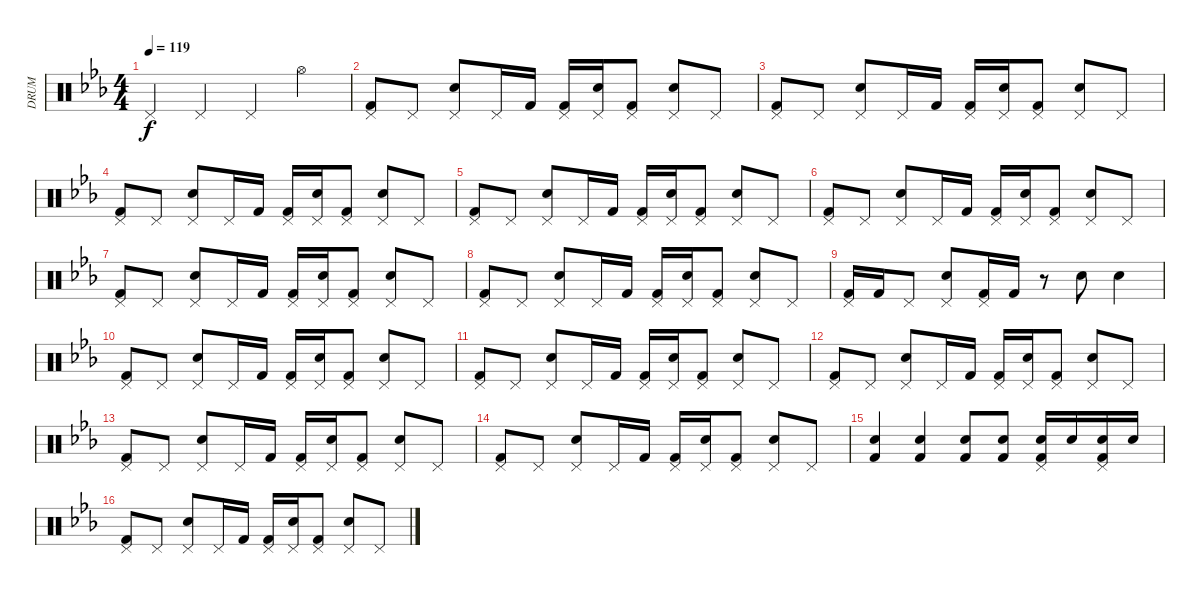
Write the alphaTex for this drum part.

\track ("DRUM" "DRUM") {instrument percussion}
\staff {score}
\articulation defaults
\ts (4 4)
\tempo 119
\clef neutral
\ks eb "Pedal Hi-Hat (hit)".4{dy f} "Pedal Hi-Hat (hit)".4 "Pedal Hi-Hat (hit)".4 "Hi-Hat (open)".4
|
("Pedal Hi-Hat (hit)" "Kick (hit) 2").8 "Pedal Hi-Hat (hit)".8 ("Pedal Hi-Hat (hit)" "Electric Snare (hit)").8 "Pedal Hi-Hat (hit)".16 "Kick (hit) 2".16 ("Pedal Hi-Hat (hit)" "Kick (hit) 2").16 ("Pedal Hi-Hat (hit)" "Electric Snare (hit)").16 ("Pedal Hi-Hat (hit)" "Kick (hit) 2").8 ("Pedal Hi-Hat (hit)" "Electric Snare (hit)").8 "Pedal Hi-Hat (hit)".8 |
("Pedal Hi-Hat (hit)" "Kick (hit) 2").8 "Pedal Hi-Hat (hit)".8 ("Pedal Hi-Hat (hit)" "Electric Snare (hit)").8 "Pedal Hi-Hat (hit)".16 "Kick (hit) 2".16 ("Pedal Hi-Hat (hit)" "Kick (hit) 2").16 ("Pedal Hi-Hat (hit)" "Electric Snare (hit)").16 ("Pedal Hi-Hat (hit)" "Kick (hit) 2").8 ("Pedal Hi-Hat (hit)" "Electric Snare (hit)").8 "Pedal Hi-Hat (hit)".8 |
("Pedal Hi-Hat (hit)" "Kick (hit) 2").8 "Pedal Hi-Hat (hit)".8 ("Pedal Hi-Hat (hit)" "Electric Snare (hit)").8 "Pedal Hi-Hat (hit)".16 "Kick (hit) 2".16 ("Pedal Hi-Hat (hit)" "Kick (hit) 2").16 ("Pedal Hi-Hat (hit)" "Electric Snare (hit)").16 ("Pedal Hi-Hat (hit)" "Kick (hit) 2").8 ("Pedal Hi-Hat (hit)" "Electric Snare (hit)").8 "Pedal Hi-Hat (hit)".8 |
("Pedal Hi-Hat (hit)" "Kick (hit) 2").8 "Pedal Hi-Hat (hit)".8 ("Pedal Hi-Hat (hit)" "Electric Snare (hit)").8 "Pedal Hi-Hat (hit)".16 "Kick (hit) 2".16 ("Pedal Hi-Hat (hit)" "Kick (hit) 2").16 ("Pedal Hi-Hat (hit)" "Electric Snare (hit)").16 ("Pedal Hi-Hat (hit)" "Kick (hit) 2").8 ("Pedal Hi-Hat (hit)" "Electric Snare (hit)").8 "Pedal Hi-Hat (hit)".8 |
("Pedal Hi-Hat (hit)" "Kick (hit) 2").8 "Pedal Hi-Hat (hit)".8 ("Pedal Hi-Hat (hit)" "Electric Snare (hit)").8 "Pedal Hi-Hat (hit)".16 "Kick (hit) 2".16 ("Pedal Hi-Hat (hit)" "Kick (hit) 2").16 ("Pedal Hi-Hat (hit)" "Electric Snare (hit)").16 ("Pedal Hi-Hat (hit)" "Kick (hit) 2").8 ("Pedal Hi-Hat (hit)" "Electric Snare (hit)").8 "Pedal Hi-Hat (hit)".8 |
("Pedal Hi-Hat (hit)" "Kick (hit) 2").8 "Pedal Hi-Hat (hit)".8 ("Pedal Hi-Hat (hit)" "Electric Snare (hit)").8 "Pedal Hi-Hat (hit)".16 "Kick (hit) 2".16 ("Pedal Hi-Hat (hit)" "Kick (hit) 2").16 ("Pedal Hi-Hat (hit)" "Electric Snare (hit)").16 ("Pedal Hi-Hat (hit)" "Kick (hit) 2").8 ("Pedal Hi-Hat (hit)" "Electric Snare (hit)").8 "Pedal Hi-Hat (hit)".8 |
("Pedal Hi-Hat (hit)" "Kick (hit) 2").8 "Pedal Hi-Hat (hit)".8 ("Pedal Hi-Hat (hit)" "Electric Snare (hit)").8 "Pedal Hi-Hat (hit)".16 "Kick (hit) 2".16 ("Pedal Hi-Hat (hit)" "Kick (hit) 2").16 ("Pedal Hi-Hat (hit)" "Electric Snare (hit)").16 ("Pedal Hi-Hat (hit)" "Kick (hit) 2").8 ("Pedal Hi-Hat (hit)" "Electric Snare (hit)").8 "Pedal Hi-Hat (hit)".8 |
("Pedal Hi-Hat (hit)" "Kick (hit) 2").16 "Kick (hit) 2".16 "Pedal Hi-Hat (hit)".8 ("Pedal Hi-Hat (hit)" "Electric Snare (hit)").8 ("Pedal Hi-Hat (hit)" "Kick (hit) 2").16 "Kick (hit) 2".16 r.8 "Electric Snare (hit)".8 "Electric Snare (hit)".4 |
("Pedal Hi-Hat (hit)" "Kick (hit) 2").8 "Pedal Hi-Hat (hit)".8 ("Pedal Hi-Hat (hit)" "Electric Snare (hit)").8 "Pedal Hi-Hat (hit)".16 "Kick (hit) 2".16 ("Pedal Hi-Hat (hit)" "Kick (hit) 2").16 ("Pedal Hi-Hat (hit)" "Electric Snare (hit)").16 ("Pedal Hi-Hat (hit)" "Kick (hit) 2").8 ("Pedal Hi-Hat (hit)" "Electric Snare (hit)").8 "Pedal Hi-Hat (hit)".8 |
("Pedal Hi-Hat (hit)" "Kick (hit) 2").8 "Pedal Hi-Hat (hit)".8 ("Pedal Hi-Hat (hit)" "Electric Snare (hit)").8 "Pedal Hi-Hat (hit)".16 "Kick (hit) 2".16 ("Pedal Hi-Hat (hit)" "Kick (hit) 2").16 ("Pedal Hi-Hat (hit)" "Electric Snare (hit)").16 ("Pedal Hi-Hat (hit)" "Kick (hit) 2").8 ("Pedal Hi-Hat (hit)" "Electric Snare (hit)").8 "Pedal Hi-Hat (hit)".8 |
("Pedal Hi-Hat (hit)" "Kick (hit) 2").8 "Pedal Hi-Hat (hit)".8 ("Pedal Hi-Hat (hit)" "Electric Snare (hit)").8 "Pedal Hi-Hat (hit)".16 "Kick (hit) 2".16 ("Pedal Hi-Hat (hit)" "Kick (hit) 2").16 ("Pedal Hi-Hat (hit)" "Electric Snare (hit)").16 ("Pedal Hi-Hat (hit)" "Kick (hit) 2").8 ("Pedal Hi-Hat (hit)" "Electric Snare (hit)").8 "Pedal Hi-Hat (hit)".8 |
("Pedal Hi-Hat (hit)" "Kick (hit) 2").8 "Pedal Hi-Hat (hit)".8 ("Pedal Hi-Hat (hit)" "Electric Snare (hit)").8 "Pedal Hi-Hat (hit)".16 "Kick (hit) 2".16 ("Pedal Hi-Hat (hit)" "Kick (hit) 2").16 ("Pedal Hi-Hat (hit)" "Electric Snare (hit)").16 ("Pedal Hi-Hat (hit)" "Kick (hit) 2").8 ("Pedal Hi-Hat (hit)" "Electric Snare (hit)").8 "Pedal Hi-Hat (hit)".8 |
("Pedal Hi-Hat (hit)" "Kick (hit) 2").8 "Pedal Hi-Hat (hit)".8 ("Pedal Hi-Hat (hit)" "Electric Snare (hit)").8 "Pedal Hi-Hat (hit)".16 "Kick (hit) 2".16 ("Pedal Hi-Hat (hit)" "Kick (hit) 2").16 ("Pedal Hi-Hat (hit)" "Electric Snare (hit)").16 ("Pedal Hi-Hat (hit)" "Kick (hit) 2").8 ("Pedal Hi-Hat (hit)" "Electric Snare (hit)").8 "Pedal Hi-Hat (hit)".8 |
("Electric Snare (hit)" "Kick (hit) 2").4 ("Electric Snare (hit)" "Kick (hit) 2").4 ("Electric Snare (hit)" "Kick (hit) 2").8 ("Electric Snare (hit)" "Kick (hit) 2").8 ("Pedal Hi-Hat (hit)" "Electric Snare (hit)" "Kick (hit) 2").16 "Electric Snare (hit)".16 ("Pedal Hi-Hat (hit)" "Electric Snare (hit)" "Kick (hit) 2").16 "Electric Snare (hit)".16 |
("Pedal Hi-Hat (hit)" "Kick (hit) 2").8 "Pedal Hi-Hat (hit)".8 ("Pedal Hi-Hat (hit)" "Electric Snare (hit)").8 "Pedal Hi-Hat (hit)".16 "Kick (hit) 2".16 ("Pedal Hi-Hat (hit)" "Kick (hit) 2").16 ("Pedal Hi-Hat (hit)" "Electric Snare (hit)").16 ("Pedal Hi-Hat (hit)" "Kick (hit) 2").8 ("Pedal Hi-Hat (hit)" "Electric Snare (hit)").8 "Pedal Hi-Hat (hit)".8
